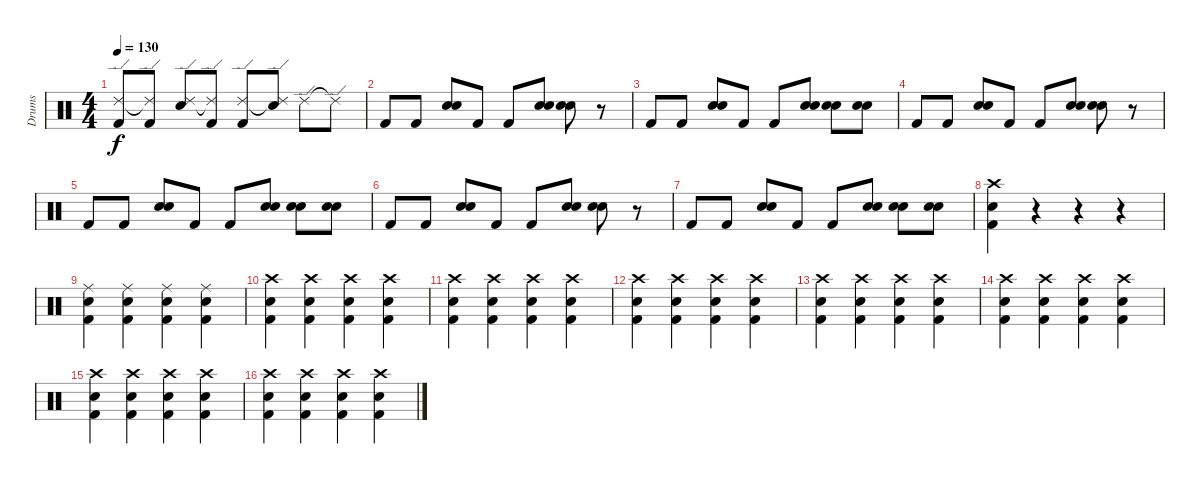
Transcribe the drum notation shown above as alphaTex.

\track ("Drums" "Drums") {instrument percussion}
\staff {score}
\articulation defaults
\ts (4 4)
\tempo 130
\clef neutral
\ks c
("Ride (edge) 2" "Kick (hit) 2").8{dy f} ("Ride (edge) 2"{t} "Kick (hit) 2").8 ("Ride (edge) 2" "Snare (hit) 2").8 ("Ride (edge) 2"{t} "Kick (hit) 2").8 ("Ride (edge) 2" "Kick (hit) 2").8 ("Ride (edge) 2"{t} "Snare (hit) 2").8 "Ride (edge) 2".8 "Ride (edge) 2"{t}.8 |
"Kick (hit) 2".8 "Kick (hit) 2".8 ("Snare (hit) 2" "Snare (hit) 2").8 "Kick (hit) 2".8 "Kick (hit) 2".8 ("Snare (hit) 2" "Snare (hit) 2").8 ("Snare (hit) 2" "Snare (hit) 2").8 r.8 |
"Kick (hit) 2".8 "Kick (hit) 2".8 ("Snare (hit) 2" "Snare (hit) 2").8 "Kick (hit) 2".8 "Kick (hit) 2".8 ("Snare (hit) 2" "Snare (hit) 2").8 ("Snare (hit) 2" "Snare (hit) 2").8 ("Snare (hit) 2" "Snare (hit) 2").8 |
"Kick (hit) 2".8 "Kick (hit) 2".8 ("Snare (hit) 2" "Snare (hit) 2").8 "Kick (hit) 2".8 "Kick (hit) 2".8 ("Snare (hit) 2" "Snare (hit) 2").8 ("Snare (hit) 2" "Snare (hit) 2").8 r.8 |
"Kick (hit) 2".8 "Kick (hit) 2".8 ("Snare (hit) 2" "Snare (hit) 2").8 "Kick (hit) 2".8 "Kick (hit) 2".8 ("Snare (hit) 2" "Snare (hit) 2").8 ("Snare (hit) 2" "Snare (hit) 2").8 ("Snare (hit) 2" "Snare (hit) 2").8 |
"Kick (hit) 2".8 "Kick (hit) 2".8 ("Snare (hit) 2" "Snare (hit) 2").8 "Kick (hit) 2".8 "Kick (hit) 2".8 ("Snare (hit) 2" "Snare (hit) 2").8 ("Snare (hit) 2" "Snare (hit) 2").8 r.8 |
"Kick (hit) 2".8 "Kick (hit) 2".8 ("Snare (hit) 2" "Snare (hit) 2").8 "Kick (hit) 2".8 "Kick (hit) 2".8 ("Snare (hit) 2" "Snare (hit) 2").8 ("Snare (hit) 2" "Snare (hit) 2").8 ("Snare (hit) 2" "Snare (hit) 2").8 |
("Crash high (hit)" "Snare (hit) 2" "Kick (hit) 2").4 r.4 r.4 r.4 |
("Ride (middle)" "Kick (hit) 2" "Snare (hit) 2").4 ("Ride (middle)" "Kick (hit) 2" "Snare (hit) 2").4 ("Ride (middle)" "Kick (hit) 2" "Snare (hit) 2").4 ("Ride (middle)" "Kick (hit) 2" "Snare (hit) 2").4 |
("Crash high (hit)" "Kick (hit) 2" "Snare (hit) 2").4 ("Crash high (hit)" "Kick (hit) 2" "Snare (hit) 2").4 ("Crash high (hit)" "Kick (hit) 2" "Snare (hit) 2").4 ("Crash high (hit)" "Kick (hit) 2" "Snare (hit) 2").4 |
("Crash high (hit)" "Kick (hit) 2" "Snare (hit) 2").4 ("Crash high (hit)" "Kick (hit) 2" "Snare (hit) 2").4 ("Crash high (hit)" "Kick (hit) 2" "Snare (hit) 2").4 ("Crash high (hit)" "Kick (hit) 2" "Snare (hit) 2").4 |
("Crash high (hit)" "Kick (hit) 2" "Snare (hit) 2").4 ("Crash high (hit)" "Kick (hit) 2" "Snare (hit) 2").4 ("Crash high (hit)" "Kick (hit) 2" "Snare (hit) 2").4 ("Crash high (hit)" "Kick (hit) 2" "Snare (hit) 2").4 |
("Crash high (hit)" "Kick (hit) 2" "Snare (hit) 2").4 ("Crash high (hit)" "Kick (hit) 2" "Snare (hit) 2").4 ("Crash high (hit)" "Kick (hit) 2" "Snare (hit) 2").4 ("Crash high (hit)" "Kick (hit) 2" "Snare (hit) 2").4 |
("Crash high (hit)" "Kick (hit) 2" "Snare (hit) 2").4 ("Crash high (hit)" "Kick (hit) 2" "Snare (hit) 2").4 ("Crash high (hit)" "Kick (hit) 2" "Snare (hit) 2").4 ("Crash high (hit)" "Kick (hit) 2" "Snare (hit) 2").4 |
("Crash high (hit)" "Kick (hit) 2" "Snare (hit) 2").4 ("Crash high (hit)" "Kick (hit) 2" "Snare (hit) 2").4 ("Crash high (hit)" "Kick (hit) 2" "Snare (hit) 2").4 ("Crash high (hit)" "Kick (hit) 2" "Snare (hit) 2").4 |
("Crash high (hit)" "Kick (hit) 2" "Snare (hit) 2").4 ("Crash high (hit)" "Kick (hit) 2" "Snare (hit) 2").4 ("Crash high (hit)" "Kick (hit) 2" "Snare (hit) 2").4 ("Crash high (hit)" "Kick (hit) 2" "Snare (hit) 2").4
